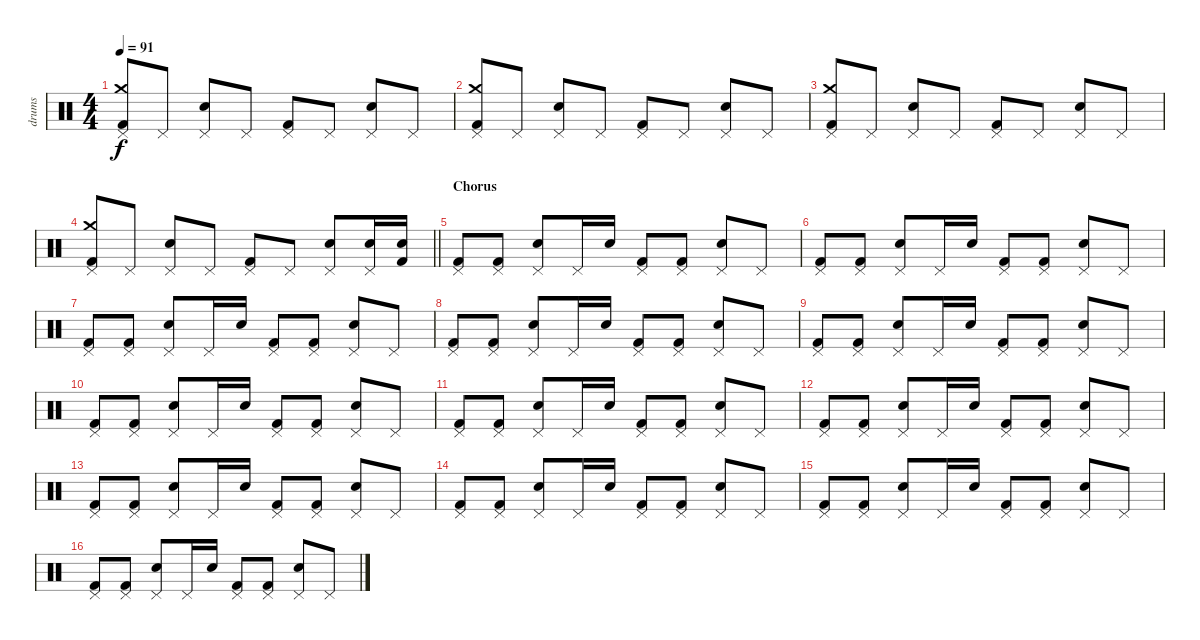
\track ("drums" "drums") {instrument percussion}
\staff {score}
\articulation defaults
\ts (4 4)
\tempo 91
\clef neutral
\ks c
("Pedal Hi-Hat (hit)" "Crash medium (hit)" "Kick (hit) 2").8{dy f} "Pedal Hi-Hat (hit)".8 ("Pedal Hi-Hat (hit)" "Electric Snare (hit)").8 "Pedal Hi-Hat (hit)".8 ("Pedal Hi-Hat (hit)" "Kick (hit) 2").8 "Pedal Hi-Hat (hit)".8 ("Pedal Hi-Hat (hit)" "Electric Snare (hit)").8 "Pedal Hi-Hat (hit)".8 |
("Pedal Hi-Hat (hit)" "Crash medium (hit)" "Kick (hit) 2").8 "Pedal Hi-Hat (hit)".8 ("Pedal Hi-Hat (hit)" "Electric Snare (hit)").8 "Pedal Hi-Hat (hit)".8 ("Pedal Hi-Hat (hit)" "Kick (hit) 2").8 "Pedal Hi-Hat (hit)".8 ("Pedal Hi-Hat (hit)" "Electric Snare (hit)").8 "Pedal Hi-Hat (hit)".8 |
("Pedal Hi-Hat (hit)" "Crash medium (hit)" "Kick (hit) 2").8 "Pedal Hi-Hat (hit)".8 ("Pedal Hi-Hat (hit)" "Electric Snare (hit)").8 "Pedal Hi-Hat (hit)".8 ("Pedal Hi-Hat (hit)" "Kick (hit) 2").8 "Pedal Hi-Hat (hit)".8 ("Pedal Hi-Hat (hit)" "Electric Snare (hit)").8 "Pedal Hi-Hat (hit)".8 |
\barLineRight lightlight
("Pedal Hi-Hat (hit)" "Crash medium (hit)" "Kick (hit) 2").8 "Pedal Hi-Hat (hit)".8 ("Pedal Hi-Hat (hit)" "Electric Snare (hit)").8 "Pedal Hi-Hat (hit)".8 ("Pedal Hi-Hat (hit)" "Kick (hit) 2").8 "Pedal Hi-Hat (hit)".8 ("Pedal Hi-Hat (hit)" "Electric Snare (hit)").8 ("Pedal Hi-Hat (hit)" "Electric Snare (hit)").16 ("Electric Snare (hit)" "Kick (hit) 2").16 |
\section ("" "Chorus")
("Pedal Hi-Hat (hit)" "Kick (hit) 2").8 ("Pedal Hi-Hat (hit)" "Kick (hit) 2").8 ("Pedal Hi-Hat (hit)" "Electric Snare (hit)").8 "Pedal Hi-Hat (hit)".16 "Electric Snare (hit)".16 ("Pedal Hi-Hat (hit)" "Kick (hit) 2").8 ("Pedal Hi-Hat (hit)" "Kick (hit) 2").8 ("Pedal Hi-Hat (hit)" "Electric Snare (hit)").8 "Pedal Hi-Hat (hit)".8 |
("Pedal Hi-Hat (hit)" "Kick (hit) 2").8 ("Pedal Hi-Hat (hit)" "Kick (hit) 2").8 ("Pedal Hi-Hat (hit)" "Electric Snare (hit)").8 "Pedal Hi-Hat (hit)".16 "Electric Snare (hit)".16 ("Pedal Hi-Hat (hit)" "Kick (hit) 2").8 ("Pedal Hi-Hat (hit)" "Kick (hit) 2").8 ("Pedal Hi-Hat (hit)" "Electric Snare (hit)").8 "Pedal Hi-Hat (hit)".8 |
("Pedal Hi-Hat (hit)" "Kick (hit) 2").8 ("Pedal Hi-Hat (hit)" "Kick (hit) 2").8 ("Pedal Hi-Hat (hit)" "Electric Snare (hit)").8 "Pedal Hi-Hat (hit)".16 "Electric Snare (hit)".16 ("Pedal Hi-Hat (hit)" "Kick (hit) 2").8 ("Pedal Hi-Hat (hit)" "Kick (hit) 2").8 ("Pedal Hi-Hat (hit)" "Electric Snare (hit)").8 "Pedal Hi-Hat (hit)".8 |
("Pedal Hi-Hat (hit)" "Kick (hit) 2").8 ("Pedal Hi-Hat (hit)" "Kick (hit) 2").8 ("Pedal Hi-Hat (hit)" "Electric Snare (hit)").8 "Pedal Hi-Hat (hit)".16 "Electric Snare (hit)".16 ("Pedal Hi-Hat (hit)" "Kick (hit) 2").8 ("Pedal Hi-Hat (hit)" "Kick (hit) 2").8 ("Pedal Hi-Hat (hit)" "Electric Snare (hit)").8 "Pedal Hi-Hat (hit)".8 |
("Pedal Hi-Hat (hit)" "Kick (hit) 2").8 ("Pedal Hi-Hat (hit)" "Kick (hit) 2").8 ("Pedal Hi-Hat (hit)" "Electric Snare (hit)").8 "Pedal Hi-Hat (hit)".16 "Electric Snare (hit)".16 ("Pedal Hi-Hat (hit)" "Kick (hit) 2").8 ("Pedal Hi-Hat (hit)" "Kick (hit) 2").8 ("Pedal Hi-Hat (hit)" "Electric Snare (hit)").8 "Pedal Hi-Hat (hit)".8 |
("Pedal Hi-Hat (hit)" "Kick (hit) 2").8 ("Pedal Hi-Hat (hit)" "Kick (hit) 2").8 ("Pedal Hi-Hat (hit)" "Electric Snare (hit)").8 "Pedal Hi-Hat (hit)".16 "Electric Snare (hit)".16 ("Pedal Hi-Hat (hit)" "Kick (hit) 2").8 ("Pedal Hi-Hat (hit)" "Kick (hit) 2").8 ("Pedal Hi-Hat (hit)" "Electric Snare (hit)").8 "Pedal Hi-Hat (hit)".8 |
("Pedal Hi-Hat (hit)" "Kick (hit) 2").8 ("Pedal Hi-Hat (hit)" "Kick (hit) 2").8 ("Pedal Hi-Hat (hit)" "Electric Snare (hit)").8 "Pedal Hi-Hat (hit)".16 "Electric Snare (hit)".16 ("Pedal Hi-Hat (hit)" "Kick (hit) 2").8 ("Pedal Hi-Hat (hit)" "Kick (hit) 2").8 ("Pedal Hi-Hat (hit)" "Electric Snare (hit)").8 "Pedal Hi-Hat (hit)".8 |
("Pedal Hi-Hat (hit)" "Kick (hit) 2").8 ("Pedal Hi-Hat (hit)" "Kick (hit) 2").8 ("Pedal Hi-Hat (hit)" "Electric Snare (hit)").8 "Pedal Hi-Hat (hit)".16 "Electric Snare (hit)".16 ("Pedal Hi-Hat (hit)" "Kick (hit) 2").8 ("Pedal Hi-Hat (hit)" "Kick (hit) 2").8 ("Pedal Hi-Hat (hit)" "Electric Snare (hit)").8 "Pedal Hi-Hat (hit)".8 |
("Pedal Hi-Hat (hit)" "Kick (hit) 2").8 ("Pedal Hi-Hat (hit)" "Kick (hit) 2").8 ("Pedal Hi-Hat (hit)" "Electric Snare (hit)").8 "Pedal Hi-Hat (hit)".16 "Electric Snare (hit)".16 ("Pedal Hi-Hat (hit)" "Kick (hit) 2").8 ("Pedal Hi-Hat (hit)" "Kick (hit) 2").8 ("Pedal Hi-Hat (hit)" "Electric Snare (hit)").8 "Pedal Hi-Hat (hit)".8 |
("Pedal Hi-Hat (hit)" "Kick (hit) 2").8 ("Pedal Hi-Hat (hit)" "Kick (hit) 2").8 ("Pedal Hi-Hat (hit)" "Electric Snare (hit)").8 "Pedal Hi-Hat (hit)".16 "Electric Snare (hit)".16 ("Pedal Hi-Hat (hit)" "Kick (hit) 2").8 ("Pedal Hi-Hat (hit)" "Kick (hit) 2").8 ("Pedal Hi-Hat (hit)" "Electric Snare (hit)").8 "Pedal Hi-Hat (hit)".8 |
("Pedal Hi-Hat (hit)" "Kick (hit) 2").8 ("Pedal Hi-Hat (hit)" "Kick (hit) 2").8 ("Pedal Hi-Hat (hit)" "Electric Snare (hit)").8 "Pedal Hi-Hat (hit)".16 "Electric Snare (hit)".16 ("Pedal Hi-Hat (hit)" "Kick (hit) 2").8 ("Pedal Hi-Hat (hit)" "Kick (hit) 2").8 ("Pedal Hi-Hat (hit)" "Electric Snare (hit)").8 "Pedal Hi-Hat (hit)".8 |
("Pedal Hi-Hat (hit)" "Kick (hit) 2").8 ("Pedal Hi-Hat (hit)" "Kick (hit) 2").8 ("Pedal Hi-Hat (hit)" "Electric Snare (hit)").8 "Pedal Hi-Hat (hit)".16 "Electric Snare (hit)".16 ("Pedal Hi-Hat (hit)" "Kick (hit) 2").8 ("Pedal Hi-Hat (hit)" "Kick (hit) 2").8 ("Pedal Hi-Hat (hit)" "Electric Snare (hit)").8 "Pedal Hi-Hat (hit)".8
